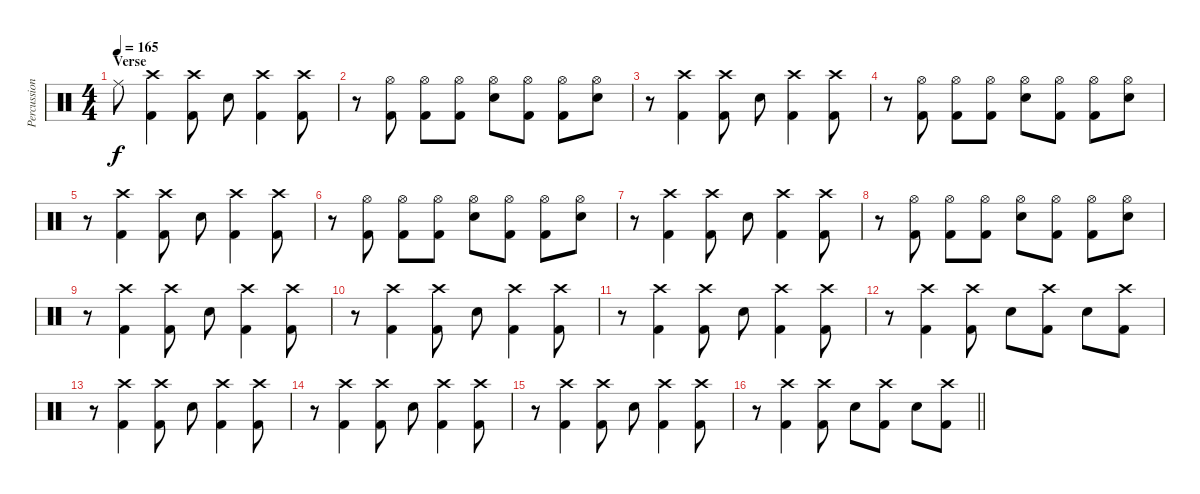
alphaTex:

\track ("Percussion" "Percussion") {instrument percussion}
\staff {score}
\articulation defaults
\ts (4 4)
\section ("" "Verse")
\tempo 165
\clef neutral
\ks c "Ride (middle)".8{dy f}
("Crash high (hit)" "Kick (hit) 2").4 ("Crash high (hit)" "Kick (hit) 2").8 "Electric Snare (hit)".8 ("Crash high (hit)" "Kick (hit) 2").4 ("Crash high (hit)" "Kick (hit) 2").8 |
r.8 ("Hi-Hat (open)" "Kick (hit) 2").8 ("Hi-Hat (open)" "Kick (hit) 2").8 ("Hi-Hat (open)" "Kick (hit) 2").8 ("Hi-Hat (open)" "Electric Snare (hit)").8 ("Hi-Hat (open)" "Kick (hit) 2").8 ("Hi-Hat (open)" "Kick (hit) 2").8 ("Hi-Hat (open)" "Electric Snare (hit)").8 |
r.8 ("Crash high (hit)" "Kick (hit) 2").4 ("Crash high (hit)" "Kick (hit) 2").8 "Electric Snare (hit)".8 ("Crash high (hit)" "Kick (hit) 2").4 ("Crash high (hit)" "Kick (hit) 2").8 |
r.8 ("Hi-Hat (open)" "Kick (hit) 2").8 ("Hi-Hat (open)" "Kick (hit) 2").8 ("Hi-Hat (open)" "Kick (hit) 2").8 ("Hi-Hat (open)" "Electric Snare (hit)").8 ("Hi-Hat (open)" "Kick (hit) 2").8 ("Hi-Hat (open)" "Kick (hit) 2").8 ("Hi-Hat (open)" "Electric Snare (hit)").8 |
r.8 ("Crash high (hit)" "Kick (hit) 2").4 ("Crash high (hit)" "Kick (hit) 2").8 "Electric Snare (hit)".8 ("Crash high (hit)" "Kick (hit) 2").4 ("Crash high (hit)" "Kick (hit) 2").8 |
r.8 ("Hi-Hat (open)" "Kick (hit) 2").8 ("Hi-Hat (open)" "Kick (hit) 2").8 ("Hi-Hat (open)" "Kick (hit) 2").8 ("Hi-Hat (open)" "Electric Snare (hit)").8 ("Hi-Hat (open)" "Kick (hit) 2").8 ("Hi-Hat (open)" "Kick (hit) 2").8 ("Hi-Hat (open)" "Electric Snare (hit)").8 |
r.8 ("Crash high (hit)" "Kick (hit) 2").4 ("Crash high (hit)" "Kick (hit) 2").8 "Electric Snare (hit)".8 ("Crash high (hit)" "Kick (hit) 2").4 ("Crash high (hit)" "Kick (hit) 2").8 |
r.8 ("Hi-Hat (open)" "Kick (hit) 2").8 ("Hi-Hat (open)" "Kick (hit) 2").8 ("Hi-Hat (open)" "Kick (hit) 2").8 ("Hi-Hat (open)" "Electric Snare (hit)").8 ("Hi-Hat (open)" "Kick (hit) 2").8 ("Hi-Hat (open)" "Kick (hit) 2").8 ("Hi-Hat (open)" "Electric Snare (hit)").8 |
r.8 ("Crash high (hit)" "Kick (hit) 2").4 ("Crash high (hit)" "Kick (hit) 2").8 "Electric Snare (hit)".8 ("Crash high (hit)" "Kick (hit) 2").4 ("Crash high (hit)" "Kick (hit) 2").8 |
r.8 ("Crash high (hit)" "Kick (hit) 2").4 ("Crash high (hit)" "Kick (hit) 2").8 "Electric Snare (hit)".8 ("Crash high (hit)" "Kick (hit) 2").4 ("Crash high (hit)" "Kick (hit) 2").8 |
r.8 ("Crash high (hit)" "Kick (hit) 2").4 ("Crash high (hit)" "Kick (hit) 2").8 "Electric Snare (hit)".8 ("Crash high (hit)" "Kick (hit) 2").4 ("Crash high (hit)" "Kick (hit) 2").8 |
r.8 ("Crash high (hit)" "Kick (hit) 2").4 ("Crash high (hit)" "Kick (hit) 2").8 "Electric Snare (hit)".8 ("Crash high (hit)" "Kick (hit) 2").8 "Electric Snare (hit)".8 ("Crash high (hit)" "Kick (hit) 2").8 |
r.8 ("Crash high (hit)" "Kick (hit) 2").4 ("Crash high (hit)" "Kick (hit) 2").8 "Electric Snare (hit)".8 ("Crash high (hit)" "Kick (hit) 2").4 ("Crash high (hit)" "Kick (hit) 2").8 |
r.8 ("Crash high (hit)" "Kick (hit) 2").4 ("Crash high (hit)" "Kick (hit) 2").8 "Electric Snare (hit)".8 ("Crash high (hit)" "Kick (hit) 2").4 ("Crash high (hit)" "Kick (hit) 2").8 |
r.8 ("Crash high (hit)" "Kick (hit) 2").4 ("Crash high (hit)" "Kick (hit) 2").8 "Electric Snare (hit)".8 ("Crash high (hit)" "Kick (hit) 2").4 ("Crash high (hit)" "Kick (hit) 2").8 |
\barLineRight lightlight
r.8 ("Crash high (hit)" "Kick (hit) 2").4 ("Crash high (hit)" "Kick (hit) 2").8 "Electric Snare (hit)".8 ("Crash high (hit)" "Kick (hit) 2").8 "Electric Snare (hit)".8 ("Crash high (hit)" "Kick (hit) 2").8
